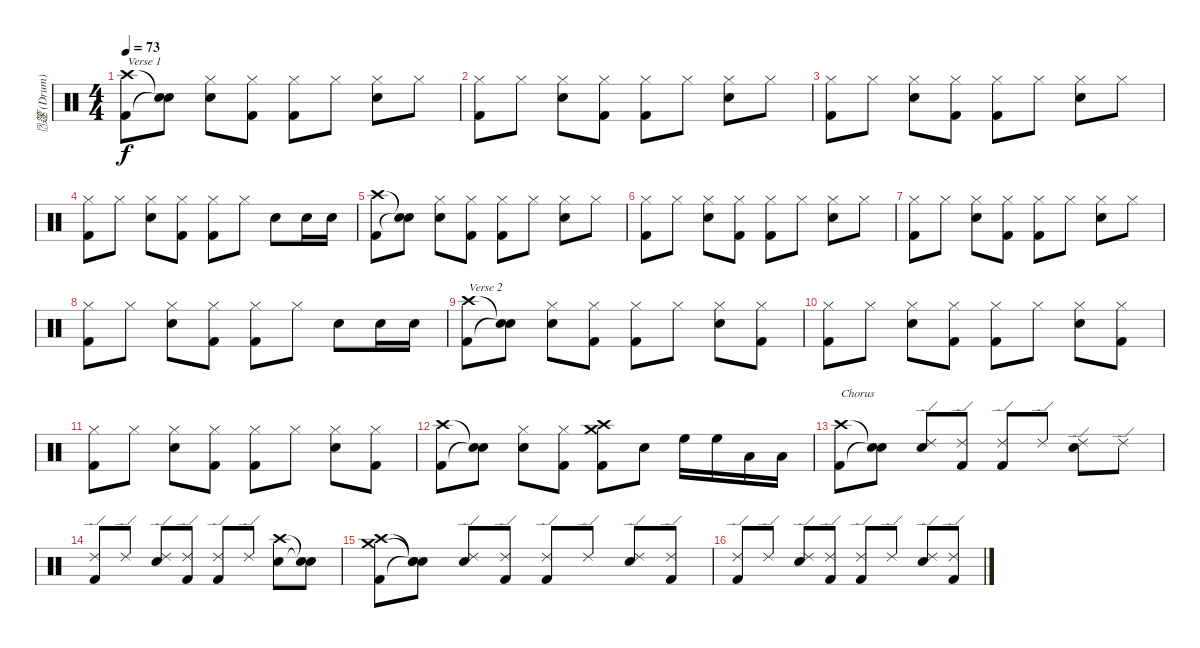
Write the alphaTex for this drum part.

\track ("篴 (Drum)" "篴 (Drum)") {instrument percussion}
\staff {score}
\articulation defaults
\ts (4 4)
\tempo 73
\clef neutral
\ks c
("Crash high (hit)" "Kick (hit) 2").8{txt "Verse 1" dy f} ("Snare (hit)"{t} "Snare (hit)"{t}).8 ("Hi-Hat (closed)" "Electric Snare (hit)").8 ("Hi-Hat (closed)" "Kick (hit) 2").8 ("Hi-Hat (closed)" "Kick (hit) 2").8 "Hi-Hat (closed)".8 ("Hi-Hat (closed)" "Electric Snare (hit)").8 "Hi-Hat (closed)".8 |
("Hi-Hat (closed)" "Kick (hit) 2").8 "Hi-Hat (closed)".8 ("Hi-Hat (closed)" "Electric Snare (hit)").8 ("Hi-Hat (closed)" "Kick (hit) 2").8 ("Hi-Hat (closed)" "Kick (hit) 2").8 "Hi-Hat (closed)".8 ("Hi-Hat (closed)" "Electric Snare (hit)").8 "Hi-Hat (closed)".8 |
("Hi-Hat (closed)" "Kick (hit) 2").8 "Hi-Hat (closed)".8 ("Hi-Hat (closed)" "Electric Snare (hit)").8 ("Hi-Hat (closed)" "Kick (hit) 2").8 ("Hi-Hat (closed)" "Kick (hit) 2").8 "Hi-Hat (closed)".8 ("Hi-Hat (closed)" "Electric Snare (hit)").8 "Hi-Hat (closed)".8 |
("Hi-Hat (closed)" "Kick (hit) 2").8 "Hi-Hat (closed)".8 ("Hi-Hat (closed)" "Electric Snare (hit)").8 ("Hi-Hat (closed)" "Kick (hit) 2").8 ("Hi-Hat (closed)" "Kick (hit) 2").8 "Hi-Hat (closed)".8 "Electric Snare (hit)".8 "Electric Snare (hit)".16 "Electric Snare (hit)".16 |
("Crash high (hit)" "Kick (hit) 2").8 ("Snare (hit)"{t} "Snare (hit)"{t}).8 ("Hi-Hat (closed)" "Electric Snare (hit)").8 ("Hi-Hat (closed)" "Kick (hit) 2").8 ("Hi-Hat (closed)" "Kick (hit) 2").8 "Hi-Hat (closed)".8 ("Hi-Hat (closed)" "Electric Snare (hit)").8 "Hi-Hat (closed)".8 |
("Hi-Hat (closed)" "Kick (hit) 2").8 "Hi-Hat (closed)".8 ("Hi-Hat (closed)" "Electric Snare (hit)").8 ("Hi-Hat (closed)" "Kick (hit) 2").8 ("Hi-Hat (closed)" "Kick (hit) 2").8 "Hi-Hat (closed)".8 ("Hi-Hat (closed)" "Electric Snare (hit)").8 "Hi-Hat (closed)".8 |
("Hi-Hat (closed)" "Kick (hit) 2").8 "Hi-Hat (closed)".8 ("Hi-Hat (closed)" "Electric Snare (hit)").8 ("Hi-Hat (closed)" "Kick (hit) 2").8 ("Hi-Hat (closed)" "Kick (hit) 2").8 "Hi-Hat (closed)".8 ("Hi-Hat (closed)" "Electric Snare (hit)").8 "Hi-Hat (closed)".8 |
("Hi-Hat (closed)" "Kick (hit) 2").8 "Hi-Hat (closed)".8 ("Hi-Hat (closed)" "Electric Snare (hit)").8 ("Hi-Hat (closed)" "Kick (hit) 2").8 ("Hi-Hat (closed)" "Kick (hit) 2").8 "Hi-Hat (closed)".8 "Electric Snare (hit)".8 "Electric Snare (hit)".16 "Electric Snare (hit)".16 |
("Crash high (hit)" "Kick (hit) 2").8{txt "Verse 2"} ("Snare (hit)"{t} "Snare (hit)"{t}).8 ("Hi-Hat (closed)" "Electric Snare (hit)").8 ("Hi-Hat (closed)" "Kick (hit) 2").8 ("Hi-Hat (closed)" "Kick (hit) 2").8 "Hi-Hat (closed)".8 ("Hi-Hat (closed)" "Electric Snare (hit)").8 ("Hi-Hat (closed)" "Kick (hit) 2").8 |
("Hi-Hat (closed)" "Kick (hit) 2").8 "Hi-Hat (closed)".8 ("Hi-Hat (closed)" "Electric Snare (hit)").8 ("Hi-Hat (closed)" "Kick (hit) 2").8 ("Hi-Hat (closed)" "Kick (hit) 2").8 "Hi-Hat (closed)".8 ("Hi-Hat (closed)" "Electric Snare (hit)").8 ("Hi-Hat (closed)" "Kick (hit) 2").8 |
("Hi-Hat (closed)" "Kick (hit) 2").8 "Hi-Hat (closed)".8 ("Hi-Hat (closed)" "Electric Snare (hit)").8 ("Hi-Hat (closed)" "Kick (hit) 2").8 ("Hi-Hat (closed)" "Kick (hit) 2").8 "Hi-Hat (closed)".8 ("Hi-Hat (closed)" "Electric Snare (hit)").8 ("Hi-Hat (closed)" "Kick (hit) 2").8 |
("Crash high (hit)" "Kick (hit) 2").8 ("Snare (hit)"{t} "Snare (hit)"{t}).8 ("Hi-Hat (closed)" "Electric Snare (hit)").8 ("Hi-Hat (closed)" "Kick (hit) 2").8 ("Crash high (hit)" "Crash medium (hit)" "Kick (hit) 2").8 "Electric Snare (hit)".8 "High Floor Tom (hit)".16 "High Floor Tom (hit)".16 "Low Tom (hit)".16 "Low Tom (hit)".16 |
("Crash high (hit)" "Kick (hit) 2").8{txt "Chorus"} ("Snare (hit)"{t} "Snare (hit)"{t}).8 ("Ride (edge) 2" "Electric Snare (hit)").8 ("Ride (edge) 2" "Kick (hit) 2").8 ("Ride (edge) 2" "Kick (hit) 2").8 "Ride (edge) 2".8 ("Ride (edge) 2" "Electric Snare (hit)").8 "Ride (edge) 2".8 |
("Ride (edge) 2" "Kick (hit) 2").8 "Ride (edge) 2".8 ("Ride (edge) 2" "Electric Snare (hit)").8 ("Ride (edge) 2" "Kick (hit) 2").8 ("Ride (edge) 2" "Kick (hit) 2").8 "Ride (edge) 2".8 ("Crash high (hit)" "Electric Snare (hit)").8 ("Snare (hit)"{t} "Snare (hit)"{t}).8 |
("Crash high (hit)" "Crash medium (hit)" "Kick (hit) 2").8 ("Snare (hit)"{t} "Snare (hit)"{t} "Snare (hit)"{t}).8 ("Ride (edge) 2" "Electric Snare (hit)").8 ("Ride (edge) 2" "Kick (hit) 2").8 ("Ride (edge) 2" "Kick (hit) 2").8 "Ride (edge) 2".8 ("Ride (edge) 2" "Electric Snare (hit)").8 ("Ride (edge) 2" "Kick (hit) 2").8 |
("Ride (edge) 2" "Kick (hit) 2").8 "Ride (edge) 2".8 ("Ride (edge) 2" "Electric Snare (hit)").8 ("Ride (edge) 2" "Kick (hit) 2").8 ("Ride (edge) 2" "Kick (hit) 2").8 "Ride (edge) 2".8 ("Ride (edge) 2" "Electric Snare (hit)").8 ("Ride (edge) 2" "Kick (hit) 2").8
